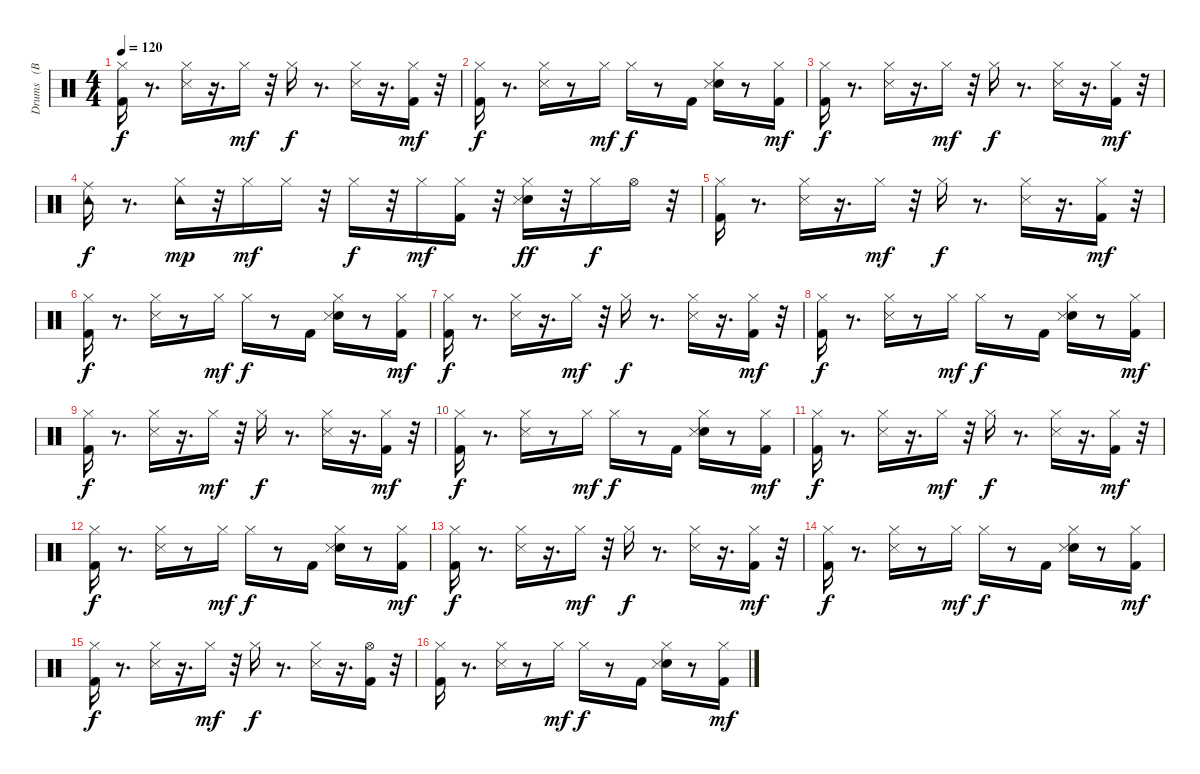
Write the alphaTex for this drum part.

\track ("Drums   (BB)" "Drums   (B") {instrument percussion}
\staff {score}
\articulation defaults
\ts (4 4)
\tempo 120
\clef neutral
\ks c
("Kick (hit) 2" "Hi-Hat (closed)").16{dy f} r.8{d} ("Hi-Hat (closed)" "Snare (side stick) 3").16 r.16{d} "Hi-Hat (closed)".16{dy mf} r.32 "Hi-Hat (closed)".16{dy f} r.8{d} ("Hi-Hat (closed)" "Snare (side stick) 3").16 r.16{d} ("Kick (hit) 2" "Hi-Hat (closed)").16{dy mf} r.32 |
("Kick (hit) 2" "Hi-Hat (closed)").16{dy f} r.8{d} ("Hi-Hat (closed)" "Snare (side stick) 3").16 r.8 "Hi-Hat (closed)".16{dy mf} "Hi-Hat (closed)".16{dy f} r.8 "Kick (hit) 2".16 ("Snare (hit) 2" "Hi-Hat (closed)" "Snare (side stick) 3").16 r.8 ("Kick (hit) 2" "Hi-Hat (closed)").16{dy mf} |
("Kick (hit) 2" "Hi-Hat (closed)").16{dy f} r.8{d} ("Hi-Hat (closed)" "Snare (side stick) 3").16 r.16{d} "Hi-Hat (closed)".16{dy mf} r.32 "Hi-Hat (closed)".16{dy f} r.8{d} ("Hi-Hat (closed)" "Snare (side stick) 3").16 r.16{d} ("Kick (hit) 2" "Hi-Hat (closed)").16{dy mf} r.32 |
("Tambourine (hit)" "Ride (middle)").16{dy f} r.8{d} ("Hi-Hat (closed)" "Tambourine (hit)").16{dy mp} r.32 "Hi-Hat (closed)".16{dy mf} "Hi-Hat (closed)".16 r.32 "Hi-Hat (closed)".16{dy f} r.32 "Hi-Hat (closed)".16{dy mf} ("Kick (hit) 2" "Hi-Hat (closed)").16 r.32 ("Snare (hit) 2" "Hi-Hat (closed)" "Snare (side stick) 3").16{dy ff} r.32 "Hi-Hat (closed)".16{dy f} "Hi-Hat (open)".16 r.32 |
("Kick (hit) 2" "Hi-Hat (closed)").16 r.8{d} ("Hi-Hat (closed)" "Snare (side stick) 3").16 r.16{d} "Hi-Hat (closed)".16{dy mf} r.32 "Hi-Hat (closed)".16{dy f} r.8{d} ("Hi-Hat (closed)" "Snare (side stick) 3").16 r.16{d} ("Kick (hit) 2" "Hi-Hat (closed)").16{dy mf} r.32 |
("Kick (hit) 2" "Hi-Hat (closed)").16{dy f} r.8{d} ("Hi-Hat (closed)" "Snare (side stick) 3").16 r.8 "Hi-Hat (closed)".16{dy mf} "Hi-Hat (closed)".16{dy f} r.8 "Kick (hit) 2".16 ("Snare (hit) 2" "Hi-Hat (closed)" "Snare (side stick) 3").16 r.8 ("Kick (hit) 2" "Hi-Hat (closed)").16{dy mf} |
("Kick (hit) 2" "Hi-Hat (closed)").16{dy f} r.8{d} ("Hi-Hat (closed)" "Snare (side stick) 3").16 r.16{d} "Hi-Hat (closed)".16{dy mf} r.32 "Hi-Hat (closed)".16{dy f} r.8{d} ("Hi-Hat (closed)" "Snare (side stick) 3").16 r.16{d} ("Kick (hit) 2" "Hi-Hat (closed)").16{dy mf} r.32 |
("Kick (hit) 2" "Hi-Hat (closed)").16{dy f} r.8{d} ("Hi-Hat (closed)" "Snare (side stick) 3").16 r.8 "Hi-Hat (closed)".16{dy mf} "Hi-Hat (closed)".16{dy f} r.8 "Kick (hit) 2".16 ("Snare (hit) 2" "Hi-Hat (closed)" "Snare (side stick) 3").16 r.8 ("Kick (hit) 2" "Hi-Hat (closed)").16{dy mf} |
("Kick (hit) 2" "Hi-Hat (closed)").16{dy f} r.8{d} ("Hi-Hat (closed)" "Snare (side stick) 3").16 r.16{d} "Hi-Hat (closed)".16{dy mf} r.32 "Hi-Hat (closed)".16{dy f} r.8{d} ("Hi-Hat (closed)" "Snare (side stick) 3").16 r.16{d} ("Kick (hit) 2" "Hi-Hat (closed)").16{dy mf} r.32 |
("Kick (hit) 2" "Hi-Hat (closed)").16{dy f} r.8{d} ("Hi-Hat (closed)" "Snare (side stick) 3").16 r.8 "Hi-Hat (closed)".16{dy mf} "Hi-Hat (closed)".16{dy f} r.8 "Kick (hit) 2".16 ("Snare (hit) 2" "Hi-Hat (closed)" "Snare (side stick) 3").16 r.8 ("Kick (hit) 2" "Hi-Hat (closed)").16{dy mf} |
("Kick (hit) 2" "Hi-Hat (closed)").16{dy f} r.8{d} ("Hi-Hat (closed)" "Snare (side stick) 3").16 r.16{d} "Hi-Hat (closed)".16{dy mf} r.32 "Hi-Hat (closed)".16{dy f} r.8{d} ("Hi-Hat (closed)" "Snare (side stick) 3").16 r.16{d} ("Kick (hit) 2" "Hi-Hat (closed)").16{dy mf} r.32 |
("Kick (hit) 2" "Hi-Hat (closed)").16{dy f} r.8{d} ("Hi-Hat (closed)" "Snare (side stick) 3").16 r.8 "Hi-Hat (closed)".16{dy mf} "Hi-Hat (closed)".16{dy f} r.8 "Kick (hit) 2".16 ("Snare (hit) 2" "Hi-Hat (closed)" "Snare (side stick) 3").16 r.8 ("Kick (hit) 2" "Hi-Hat (closed)").16{dy mf} |
("Kick (hit) 2" "Hi-Hat (closed)").16{dy f} r.8{d} ("Hi-Hat (closed)" "Snare (side stick) 3").16 r.16{d} "Hi-Hat (closed)".16{dy mf} r.32 "Hi-Hat (closed)".16{dy f} r.8{d} ("Hi-Hat (closed)" "Snare (side stick) 3").16 r.16{d} ("Kick (hit) 2" "Hi-Hat (closed)").16{dy mf} r.32 |
("Kick (hit) 2" "Hi-Hat (closed)").16{dy f} r.8{d} ("Hi-Hat (closed)" "Snare (side stick) 3").16 r.8 "Hi-Hat (closed)".16{dy mf} "Hi-Hat (closed)".16{dy f} r.8 "Kick (hit) 2".16 ("Snare (hit) 2" "Hi-Hat (closed)" "Snare (side stick) 3").16 r.8 ("Kick (hit) 2" "Hi-Hat (closed)").16{dy mf} |
("Kick (hit) 2" "Hi-Hat (closed)").16{dy f} r.8{d} ("Hi-Hat (closed)" "Snare (side stick) 3").16 r.16{d} "Hi-Hat (closed)".16{dy mf} r.32 "Hi-Hat (closed)".16{dy f} r.8{d} ("Hi-Hat (closed)" "Snare (side stick) 3").16 r.16{d} ("Kick (hit) 2" "Hi-Hat (open)").16 r.32 |
("Kick (hit) 2" "Hi-Hat (closed)").16 r.8{d} ("Hi-Hat (closed)" "Snare (side stick) 3").16 r.8 "Hi-Hat (closed)".16{dy mf} "Hi-Hat (closed)".16{dy f} r.8 "Kick (hit) 2".16 ("Snare (hit) 2" "Hi-Hat (closed)" "Snare (side stick) 3").16 r.8 ("Kick (hit) 2" "Hi-Hat (closed)").16{dy mf}
